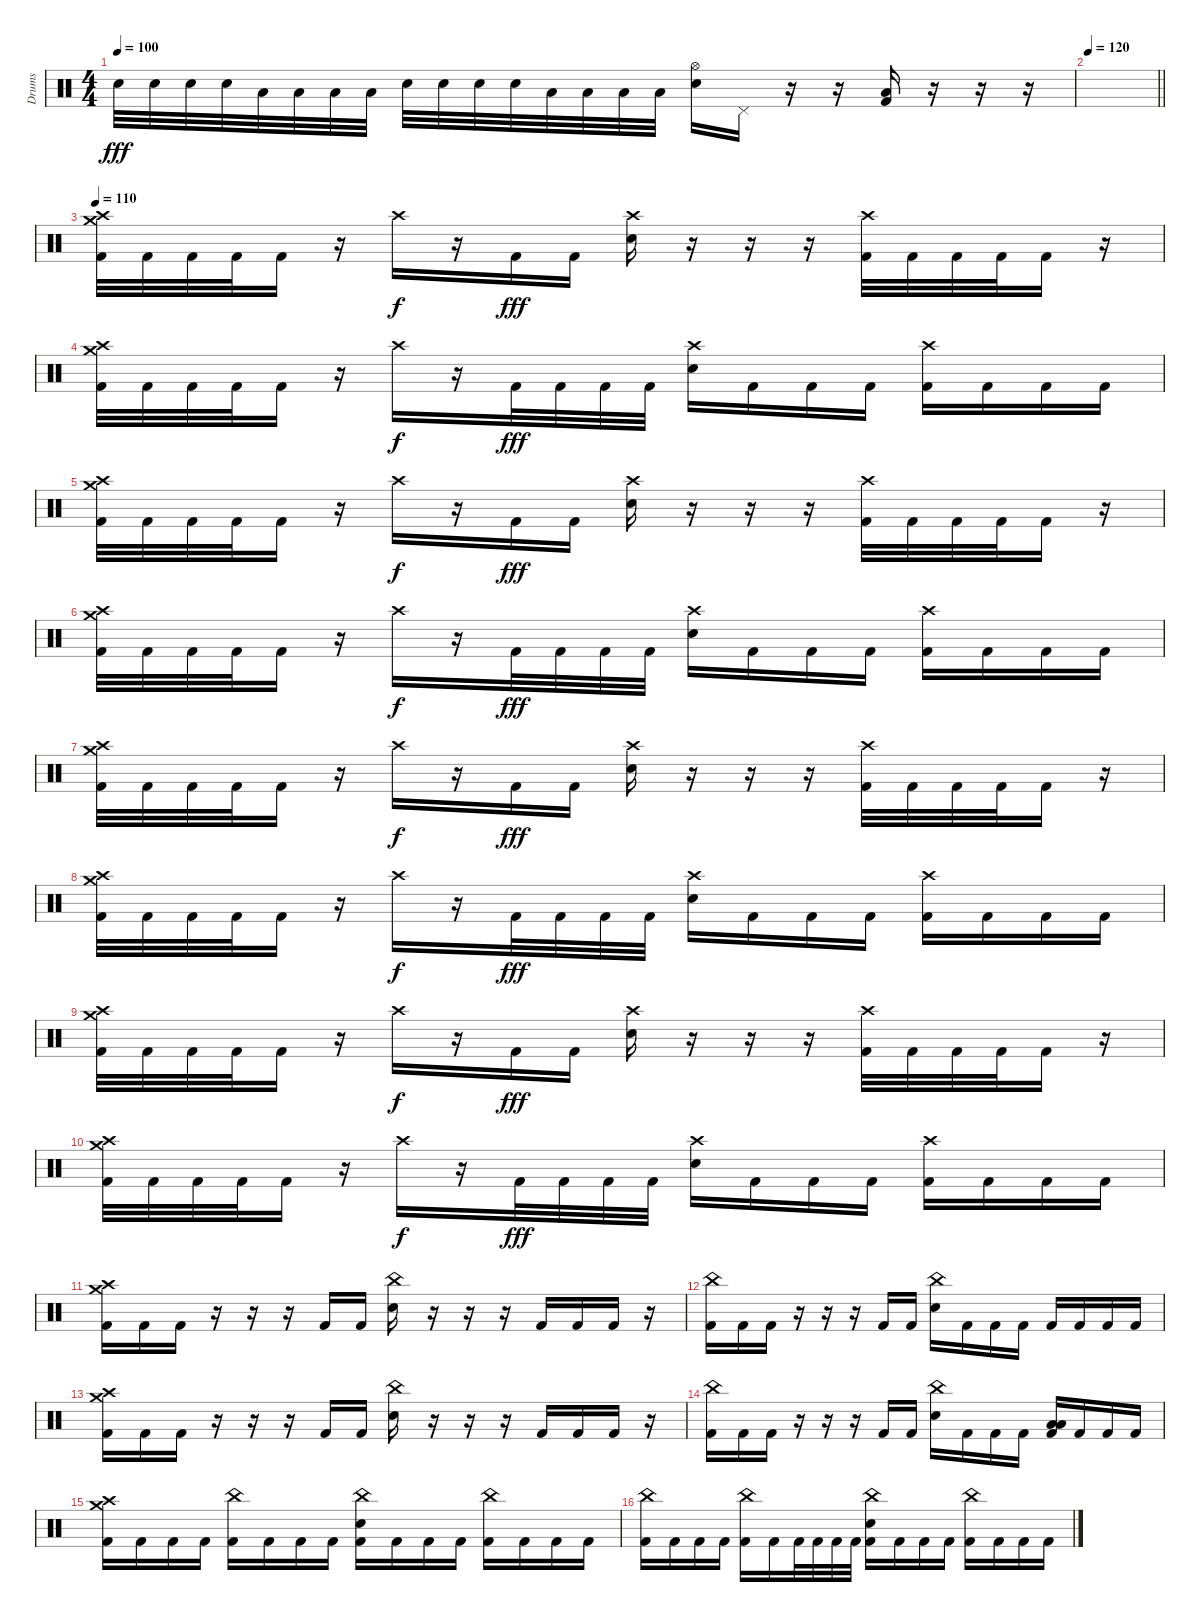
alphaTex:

\track ("Drums" "Drums") {instrument percussion}
\staff {score}
\articulation defaults
\ts (4 4)
\tempo 100
\clef neutral
\ks c "Electric Snare (hit)".32{dy fff} "Electric Snare (hit)".32 "Electric Snare (hit)".32 "Electric Snare (hit)".32 "Low Tom (hit)".32 "Low Tom (hit)".32 "Low Tom (hit)".32 "Low Tom (hit)".32 "Electric Snare (hit)".32 "Electric Snare (hit)".32 "Electric Snare (hit)".32 "Electric Snare (hit)".32 "Low Floor Tom (hit)".32 "Low Floor Tom (hit)".32 "Low Floor Tom (hit)".32 "Low Floor Tom (hit)".32
("Hi-Hat (open)" "Electric Snare (hit)").16 "Pedal Hi-Hat (hit)".16 r.16 r.16 ("Low Floor Tom (hit)" "Kick (hit) 2").16 r.16 r.16 r.16 |
\tempo 120
\barLineRight lightlight
|
\section ("" "")
\tempo 110
("Crash high (hit)" "Crash medium (hit)" "Kick (hit) 2").32 "Kick (hit) 2".32 "Kick (hit) 2".32 "Kick (hit) 2".32 "Kick (hit) 2".16 r.16 "Crash high (hit)".16{dy f} r.16 "Kick (hit) 2".16{dy fff} "Kick (hit) 2".16 ("Crash high (hit)" "Electric Snare (hit)").16 r.16 r.16 r.16 ("Crash high (hit)" "Kick (hit) 2").32 "Kick (hit) 2".32 "Kick (hit) 2".32 "Kick (hit) 2".32 "Kick (hit) 2".16 r.16 |
("Crash high (hit)" "Crash medium (hit)" "Kick (hit) 2").32 "Kick (hit) 2".32 "Kick (hit) 2".32 "Kick (hit) 2".32 "Kick (hit) 2".16 r.16 "Crash high (hit)".16{dy f} r.16 "Kick (hit) 2".32{dy fff} "Kick (hit) 2".32 "Kick (hit) 2".32 "Kick (hit) 2".32 ("Crash high (hit)" "Electric Snare (hit)").16 "Kick (hit) 2".16 "Kick (hit) 2".16 "Kick (hit) 2".16 ("Crash high (hit)" "Kick (hit) 2").16 "Kick (hit) 2".16 "Kick (hit) 2".16 "Kick (hit) 2".16 |
("Crash high (hit)" "Crash medium (hit)" "Kick (hit) 2").32 "Kick (hit) 2".32 "Kick (hit) 2".32 "Kick (hit) 2".32 "Kick (hit) 2".16 r.16 "Crash high (hit)".16{dy f} r.16 "Kick (hit) 2".16{dy fff} "Kick (hit) 2".16 ("Crash high (hit)" "Electric Snare (hit)").16 r.16 r.16 r.16 ("Crash high (hit)" "Kick (hit) 2").32 "Kick (hit) 2".32 "Kick (hit) 2".32 "Kick (hit) 2".32 "Kick (hit) 2".16 r.16 |
("Crash high (hit)" "Crash medium (hit)" "Kick (hit) 2").32 "Kick (hit) 2".32 "Kick (hit) 2".32 "Kick (hit) 2".32 "Kick (hit) 2".16 r.16 "Crash high (hit)".16{dy f} r.16 "Kick (hit) 2".32{dy fff} "Kick (hit) 2".32 "Kick (hit) 2".32 "Kick (hit) 2".32 ("Crash high (hit)" "Electric Snare (hit)").16 "Kick (hit) 2".16 "Kick (hit) 2".16 "Kick (hit) 2".16 ("Crash high (hit)" "Kick (hit) 2").16 "Kick (hit) 2".16 "Kick (hit) 2".16 "Kick (hit) 2".16 |
("Crash high (hit)" "Crash medium (hit)" "Kick (hit) 2").32 "Kick (hit) 2".32 "Kick (hit) 2".32 "Kick (hit) 2".32 "Kick (hit) 2".16 r.16 "Crash high (hit)".16{dy f} r.16 "Kick (hit) 2".16{dy fff} "Kick (hit) 2".16 ("Crash high (hit)" "Electric Snare (hit)").16 r.16 r.16 r.16 ("Crash high (hit)" "Kick (hit) 2").32 "Kick (hit) 2".32 "Kick (hit) 2".32 "Kick (hit) 2".32 "Kick (hit) 2".16 r.16 |
("Crash high (hit)" "Crash medium (hit)" "Kick (hit) 2").32 "Kick (hit) 2".32 "Kick (hit) 2".32 "Kick (hit) 2".32 "Kick (hit) 2".16 r.16 "Crash high (hit)".16{dy f} r.16 "Kick (hit) 2".32{dy fff} "Kick (hit) 2".32 "Kick (hit) 2".32 "Kick (hit) 2".32 ("Crash high (hit)" "Electric Snare (hit)").16 "Kick (hit) 2".16 "Kick (hit) 2".16 "Kick (hit) 2".16 ("Crash high (hit)" "Kick (hit) 2").16 "Kick (hit) 2".16 "Kick (hit) 2".16 "Kick (hit) 2".16 |
("Crash high (hit)" "Crash medium (hit)" "Kick (hit) 2").32 "Kick (hit) 2".32 "Kick (hit) 2".32 "Kick (hit) 2".32 "Kick (hit) 2".16 r.16 "Crash high (hit)".16{dy f} r.16 "Kick (hit) 2".16{dy fff} "Kick (hit) 2".16 ("Crash high (hit)" "Electric Snare (hit)").16 r.16 r.16 r.16 ("Crash high (hit)" "Kick (hit) 2").32 "Kick (hit) 2".32 "Kick (hit) 2".32 "Kick (hit) 2".32 "Kick (hit) 2".16 r.16 |
("Crash high (hit)" "Crash medium (hit)" "Kick (hit) 2").32 "Kick (hit) 2".32 "Kick (hit) 2".32 "Kick (hit) 2".32 "Kick (hit) 2".16 r.16 "Crash high (hit)".16{dy f} r.16 "Kick (hit) 2".32{dy fff} "Kick (hit) 2".32 "Kick (hit) 2".32 "Kick (hit) 2".32 ("Crash high (hit)" "Electric Snare (hit)").16 "Kick (hit) 2".16 "Kick (hit) 2".16 "Kick (hit) 2".16 ("Crash high (hit)" "Kick (hit) 2").16 "Kick (hit) 2".16 "Kick (hit) 2".16 "Kick (hit) 2".16 |
("Crash high (hit)" "Crash medium (hit)" "Kick (hit) 2").16 "Kick (hit) 2".16 "Kick (hit) 2".16 r.16 r.16 r.16 "Kick (hit) 2".16 "Kick (hit) 2".16 ("China (hit)" "Electric Snare (hit)").16 r.16 r.16 r.16 "Kick (hit) 2".16 "Kick (hit) 2".16 "Kick (hit) 2".16 r.16 |
("China (hit)" "Kick (hit) 2").16 "Kick (hit) 2".16 "Kick (hit) 2".16 r.16 r.16 r.16 "Kick (hit) 2".16 "Kick (hit) 2".16 ("China (hit)" "Electric Snare (hit)").16 "Kick (hit) 2".16 "Kick (hit) 2".16 "Kick (hit) 2".16 "Kick (hit) 2".16 "Kick (hit) 2".16 "Kick (hit) 2".16 "Kick (hit) 2".16 |
("Crash high (hit)" "Crash medium (hit)" "Kick (hit) 2").16 "Kick (hit) 2".16 "Kick (hit) 2".16 r.16 r.16 r.16 "Kick (hit) 2".16 "Kick (hit) 2".16 ("China (hit)" "Electric Snare (hit)").16 r.16 r.16 r.16 "Kick (hit) 2".16 "Kick (hit) 2".16 "Kick (hit) 2".16 r.16 |
("China (hit)" "Kick (hit) 2").16 "Kick (hit) 2".16 "Kick (hit) 2".16 r.16 r.16 r.16 "Kick (hit) 2".16 "Kick (hit) 2".16 ("China (hit)" "Electric Snare (hit)").16 "Kick (hit) 2".16 "Kick (hit) 2".16 "Kick (hit) 2".16 ("Low Tom (hit)" "Low Floor Tom (hit)" "Kick (hit) 2").16 "Kick (hit) 2".16 "Kick (hit) 2".16 "Kick (hit) 2".16 |
("Crash high (hit)" "Crash medium (hit)" "Kick (hit) 2").16 "Kick (hit) 2".16 "Kick (hit) 2".16 "Kick (hit) 2".16 ("China (hit)" "Kick (hit) 2").16 "Kick (hit) 2".16 "Kick (hit) 2".16 "Kick (hit) 2".16 ("China (hit)" "Electric Snare (hit)" "Kick (hit) 2").16 "Kick (hit) 2".16 "Kick (hit) 2".16 "Kick (hit) 2".16 ("China (hit)" "Kick (hit) 2").16 "Kick (hit) 2".16 "Kick (hit) 2".16 "Kick (hit) 2".16 |
("China (hit)" "Kick (hit) 2").16 "Kick (hit) 2".16 "Kick (hit) 2".16 "Kick (hit) 2".16 ("China (hit)" "Kick (hit) 2").16 "Kick (hit) 2".16 "Kick (hit) 2".32 "Kick (hit) 2".32 "Kick (hit) 2".32 "Kick (hit) 2".32 ("China (hit)" "Electric Snare (hit)" "Kick (hit) 2").16 "Kick (hit) 2".16 "Kick (hit) 2".16 "Kick (hit) 2".16 ("China (hit)" "Kick (hit) 2").16 "Kick (hit) 2".16 "Kick (hit) 2".16 "Kick (hit) 2".16
